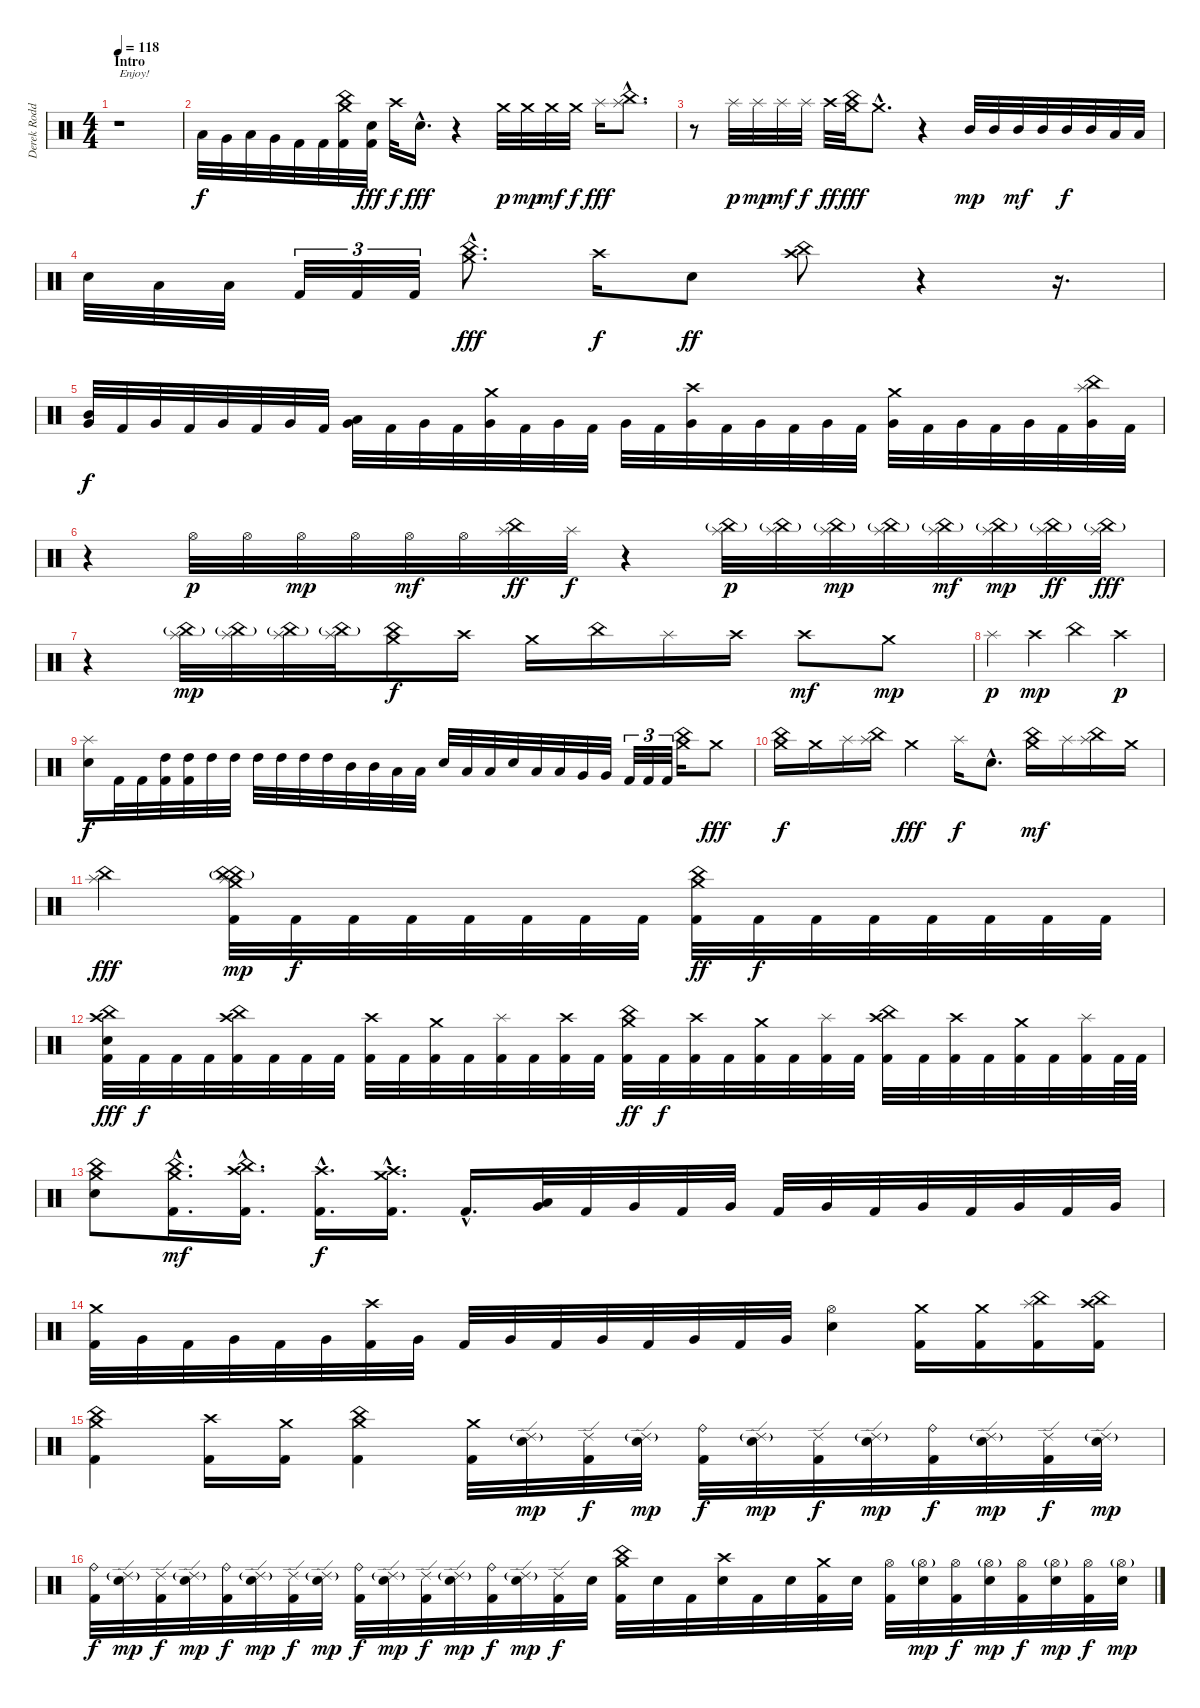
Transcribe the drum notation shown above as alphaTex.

\track ("Derek Roddy" "Derek Rodd") {instrument percussion}
\staff {score}
\articulation defaults
\ts (4 4)
\section ("" "Intro")
\tempo 118
\clef neutral
\ks c
r.1{txt "Enjoy!" dy f} |
"Low Tom (hit)".32 "Very Low Tom (hit)".32 "Low Tom (hit)".32 "Very Low Tom (hit)".32 "Kick (hit) 2".32 "Kick (hit) 2".32 ("Crash medium (hit)" "China (hit)" "Kick (hit) 2").32 ("Electric Snare (hit)" "Kick (hit) 2").32{dy fff} "Crash high (hit)".32{dy f} "Electric Snare (hit)"{hac}.16{d dy fff} r.4 "Crash medium (hit)".32{dy p} "Crash medium (hit)".32{dy mp} "Crash medium (hit)".32{dy mf} "Crash medium (hit)".32{dy f} "Splash (hit)".16{dy fff} ("Splash (hit)"{hac} "China (hit)"{hac}).8{d} |
r.8 "Splash (hit)".32{dy p} "Splash (hit)".32{dy mp} "Splash (hit)".32{dy mf} "Splash (hit)".32{dy f} "Crash high (hit)".32{dy ff} ("Crash medium (hit)" "China (hit)").32{dy fff} "Crash medium (hit)"{hac}.8{d} r.4 "Mid Tom (hit)".32{dy mp} "Mid Tom (hit)".32 "Mid Tom (hit)".32{dy mf} "Mid Tom (hit)".32 "Mid Tom (hit)".32{dy f} "Mid Tom (hit)".32 "Low Tom (hit)".32 "Low Tom (hit)".32 |
"Electric Snare (hit)".32 "Low Tom (hit)".32 "Low Tom (hit)".32 "Kick (hit) 2".32{tu (3 2)} "Kick (hit) 2".32{tu (3 2)} "Kick (hit) 2".32{tu (3 2)} ("Crash medium (hit)"{hac} "China (hit)"{hac}).8{d dy fff} "Crash high (hit)".16{dy f} "Electric Snare (hit)".8{dy ff} ("Crash high (hit)" "China (hit)").8 r.4 r.16{d} |
("Mid Tom (hit)" "Very Low Tom (hit)").32{dy f} "Kick (hit) 2".32 "Very Low Tom (hit)".32 "Kick (hit) 2".32 "Very Low Tom (hit)".32 "Kick (hit) 2".32 "Very Low Tom (hit)".32 "Kick (hit) 2".32 ("Low Tom (hit)" "Very Low Tom (hit)").32 "Kick (hit) 2".32 "Very Low Tom (hit)".32 "Kick (hit) 2".32 ("Crash medium (hit)" "Very Low Tom (hit)").32 "Kick (hit) 2".32 "Very Low Tom (hit)".32 "Kick (hit) 2".32 "Very Low Tom (hit)".32 "Kick (hit) 2".32 ("Crash high (hit)" "Very Low Tom (hit)").32 "Kick (hit) 2".32 "Very Low Tom (hit)".32 "Kick (hit) 2".32 "Very Low Tom (hit)".32 "Kick (hit) 2".32 ("Crash medium (hit)" "Very Low Tom (hit)").32 "Kick (hit) 2".32 "Very Low Tom (hit)".32 "Kick (hit) 2".32 "Very Low Tom (hit)".32 "Kick (hit) 2".32 ("Splash (hit)" "China (hit)" "Very Low Tom (hit)").32 "Kick (hit) 2".32 |
r.4 "Hi-Hat (open)".32{dy p} "Hi-Hat (open)".32 "Hi-Hat (open)".32{dy mp} "Hi-Hat (open)".32 "Hi-Hat (open)".32{dy mf} "Hi-Hat (open)".32 ("Splash (hit)" "China (hit)").32{dy ff} "Splash (hit)".32{dy f} r.4 ("China (hit)"{g} "Splash (hit)").32{dy p} ("China (hit)"{g} "Splash (hit)").32 ("China (hit)"{g} "Splash (hit)").32{dy mp} ("China (hit)"{g} "Splash (hit)").32 ("China (hit)"{g} "Splash (hit)").32{dy mf} ("China (hit)"{g} "Splash (hit)").32{dy mp} ("China (hit)"{g} "Splash (hit)").32{dy ff} ("China (hit)"{g} "Splash (hit)").32{dy fff} |
r.4 ("China (hit)"{g} "Splash (hit)").32{dy mp} ("China (hit)"{g} "Splash (hit)").32 ("China (hit)"{g} "Splash (hit)").32 ("China (hit)"{g} "Splash (hit)").32 ("Crash medium (hit)" "China (hit)").16{dy f} "Crash high (hit)".16 "Crash medium (hit)".16 "China (hit)".16 "Splash (hit)".16 "Crash high (hit)".16 "Crash high (hit)".8{dy mf} "Crash medium (hit)".8{dy mp} |
"Splash (hit)".4{dy p} "Crash high (hit)".4{dy mp} "China (hit)".4 "Crash high (hit)".4{dy p} |
("Splash (hit)" "Electric Snare (hit)").16{dy f} "Kick (hit) 2".32 "Kick (hit) 2".32 ("High Tom (hit)" "Kick (hit) 2").32 ("High Tom (hit)" "Kick (hit) 2").32 "High Tom (hit)".32 "High Tom (hit)".32 "High Tom (hit)".32 "High Tom (hit)".32 "High Tom (hit)".32 "High Tom (hit)".32 "Mid Tom (hit)".32 "Mid Tom (hit)".32 "Low Tom (hit)".32 "Low Tom (hit)".32 "Electric Snare (hit)".32 "Low Tom (hit)".32 "Low Tom (hit)".32 "Electric Snare (hit)".32 "Low Tom (hit)".32 "Low Tom (hit)".32 "Very Low Tom (hit)".32 "Very Low Tom (hit)".32 "Kick (hit) 2".32{tu (3 2)} "Kick (hit) 2".32{tu (3 2)} "Kick (hit) 2".32{tu (3 2)} ("Crash medium (hit)" "China (hit)").16 "Crash medium (hit)".8{dy fff} |
("Crash medium (hit)" "China (hit)").16{dy f} "Crash medium (hit)".16 "Splash (hit)".16 ("Splash (hit)" "China (hit)").16 "Crash medium (hit)".4{dy fff} "Splash (hit)".16{dy f} "Electric Snare (hit)"{hac}.8{d} ("Crash medium (hit)" "China (hit)").16{dy mf} "Splash (hit)".16 ("Splash (hit)" "China (hit)").16 "Crash medium (hit)".16 |
("Splash (hit)" "China (hit)").2{dy fff} ("Splash (hit)" "China (hit)"{g} "Crash medium (hit)" "China (hit)" "Kick (hit) 2").32{dy mp} "Kick (hit) 2".32{dy f} "Kick (hit) 2".32 "Kick (hit) 2".32 "Kick (hit) 2".32 "Kick (hit) 2".32 "Kick (hit) 2".32 "Kick (hit) 2".32 ("Crash medium (hit)" "China (hit)" "Kick (hit) 2").32{dy ff} "Kick (hit) 2".32{dy f} "Kick (hit) 2".32 "Kick (hit) 2".32 "Kick (hit) 2".32 "Kick (hit) 2".32 "Kick (hit) 2".32 "Kick (hit) 2".32 |
("Crash high (hit)" "China (hit)" "Electric Snare (hit)" "Kick (hit) 2").32{dy fff} "Kick (hit) 2".32{dy f} "Kick (hit) 2".32 "Kick (hit) 2".32 ("Crash high (hit)" "China (hit)" "Kick (hit) 2").32 "Kick (hit) 2".32 "Kick (hit) 2".32 "Kick (hit) 2".32 ("Crash high (hit)" "Kick (hit) 2").32 "Kick (hit) 2".32 ("Crash medium (hit)" "Kick (hit) 2").32 "Kick (hit) 2".32 ("Splash (hit)" "Kick (hit) 2").32 "Kick (hit) 2".32 ("Crash high (hit)" "Kick (hit) 2").32 "Kick (hit) 2".32 ("Crash medium (hit)" "China (hit)" "Kick (hit) 2").32{dy ff} "Kick (hit) 2".32{dy f} ("Crash high (hit)" "Kick (hit) 2").32 "Kick (hit) 2".32 ("Crash medium (hit)" "Kick (hit) 2").32 "Kick (hit) 2".32 ("Splash (hit)" "Kick (hit) 2").32 "Kick (hit) 2".32 ("Crash high (hit)" "China (hit)" "Kick (hit) 2").32 "Kick (hit) 2".32 ("Crash high (hit)" "Kick (hit) 2").32 "Kick (hit) 2".32 ("Crash medium (hit)" "Kick (hit) 2").32 "Kick (hit) 2".32 ("Splash (hit)" "Kick (hit) 2").32 "Kick (hit) 2".64 "Kick (hit) 2".64 |
("Crash medium (hit)" "China (hit)" "Electric Snare (hit)").8 ("Crash medium (hit)"{hac} "China (hit)"{hac} "Kick (hit) 2"{hac}).16{d dy mf} ("Crash high (hit)"{hac} "China (hit)"{hac} "Kick (hit) 2"{hac}).16{d} ("Crash high (hit)"{hac} "Kick (hit) 2"{hac}).16{d dy f} ("Crash high (hit)"{hac} "Crash medium (hit)"{hac} "Kick (hit) 2"{hac}).16{d} "Kick (hit) 2"{hac}.16{d} ("Low Tom (hit)" "Very Low Tom (hit)").32 "Kick (hit) 2".32 "Very Low Tom (hit)".32 "Kick (hit) 2".32 "Very Low Tom (hit)".32 "Kick (hit) 2".32 "Very Low Tom (hit)".32 "Kick (hit) 2".32 "Very Low Tom (hit)".32 "Kick (hit) 2".32 "Very Low Tom (hit)".32 "Kick (hit) 2".32 "Very Low Tom (hit)".32 |
("Crash medium (hit)" "Kick (hit) 2").32 "Very Low Tom (hit)".32 "Kick (hit) 2".32 "Very Low Tom (hit)".32 "Kick (hit) 2".32 "Very Low Tom (hit)".32 ("Crash high (hit)" "Kick (hit) 2").32 "Very Low Tom (hit)".32 "Kick (hit) 2".32 "Very Low Tom (hit)".32 "Kick (hit) 2".32 "Very Low Tom (hit)".32 "Kick (hit) 2".32 "Very Low Tom (hit)".32 "Kick (hit) 2".32 "Very Low Tom (hit)".32 ("Hi-Hat (open)" "Electric Snare (hit)").4 ("Crash medium (hit)" "Kick (hit) 2").16 ("Crash medium (hit)" "Kick (hit) 2").16 ("Splash (hit)" "China (hit)" "Kick (hit) 2").16 ("Crash high (hit)" "China (hit)" "Kick (hit) 2").16 |
("Crash medium (hit)" "China (hit)" "Kick (hit) 2").4 ("Crash high (hit)" "Kick (hit) 2").16 ("Crash medium (hit)" "Kick (hit) 2").16 ("Crash medium (hit)" "China (hit)" "Kick (hit) 2").4 ("Crash medium (hit)" "Kick (hit) 2").32 ("Ride (edge) 2"{g} "Electric Snare (hit)").32{dy mp} ("Ride (edge) 2" "Kick (hit) 2").32{dy f} ("Ride (edge) 2"{g} "Electric Snare (hit)").32{dy mp} ("Ride (bell)" "Kick (hit) 2").32{dy f} ("Ride (edge) 2"{g} "Electric Snare (hit)").32{dy mp} ("Ride (edge) 2" "Kick (hit) 2").32{dy f} ("Ride (edge) 2"{g} "Electric Snare (hit)").32{dy mp} ("Ride (bell)" "Kick (hit) 2").32{dy f} ("Ride (edge) 2"{g} "Electric Snare (hit)").32{dy mp} ("Ride (edge) 2" "Kick (hit) 2").32{dy f} ("Ride (edge) 2"{g} "Electric Snare (hit)").32{dy mp} |
("Ride (bell)" "Kick (hit) 2").32{dy f} ("Ride (edge) 2"{g} "Electric Snare (hit)").32{dy mp} ("Ride (edge) 2" "Kick (hit) 2").32{dy f} ("Ride (edge) 2"{g} "Electric Snare (hit)").32{dy mp} ("Ride (bell)" "Kick (hit) 2").32{dy f} ("Ride (edge) 2"{g} "Electric Snare (hit)").32{dy mp} ("Ride (edge) 2" "Kick (hit) 2").32{dy f} ("Ride (edge) 2"{g} "Electric Snare (hit)").32{dy mp} ("Ride (bell)" "Kick (hit) 2").32{dy f} ("Ride (edge) 2"{g} "Electric Snare (hit)").32{dy mp} ("Ride (edge) 2" "Kick (hit) 2").32{dy f} ("Ride (edge) 2"{g} "Electric Snare (hit)").32{dy mp} ("Ride (bell)" "Kick (hit) 2").32{dy f} ("Ride (edge) 2"{g} "Electric Snare (hit)").32{dy mp} ("Ride (edge) 2" "Kick (hit) 2").32{dy f} "Electric Snare (hit)".32 ("Crash medium (hit)" "China (hit)" "Kick (hit) 2").32 "Electric Snare (hit)".32 "Kick (hit) 2".32 ("Crash high (hit)" "Electric Snare (hit)").32 "Kick (hit) 2".32 "Electric Snare (hit)".32 ("Crash medium (hit)" "Kick (hit) 2").32 "Electric Snare (hit)".32 ("Hi-Hat (open)" "Kick (hit) 2").32 ("Hi-Hat (open)"{g} "Electric Snare (hit)").32{dy mp} ("Hi-Hat (open)" "Kick (hit) 2").32{dy f} ("Hi-Hat (open)"{g} "Electric Snare (hit)").32{dy mp} ("Hi-Hat (open)" "Kick (hit) 2").32{dy f} ("Hi-Hat (open)"{g} "Electric Snare (hit)").32{dy mp} ("Hi-Hat (open)" "Kick (hit) 2").32{dy f} ("Hi-Hat (open)"{g} "Electric Snare (hit)").32{dy mp}
